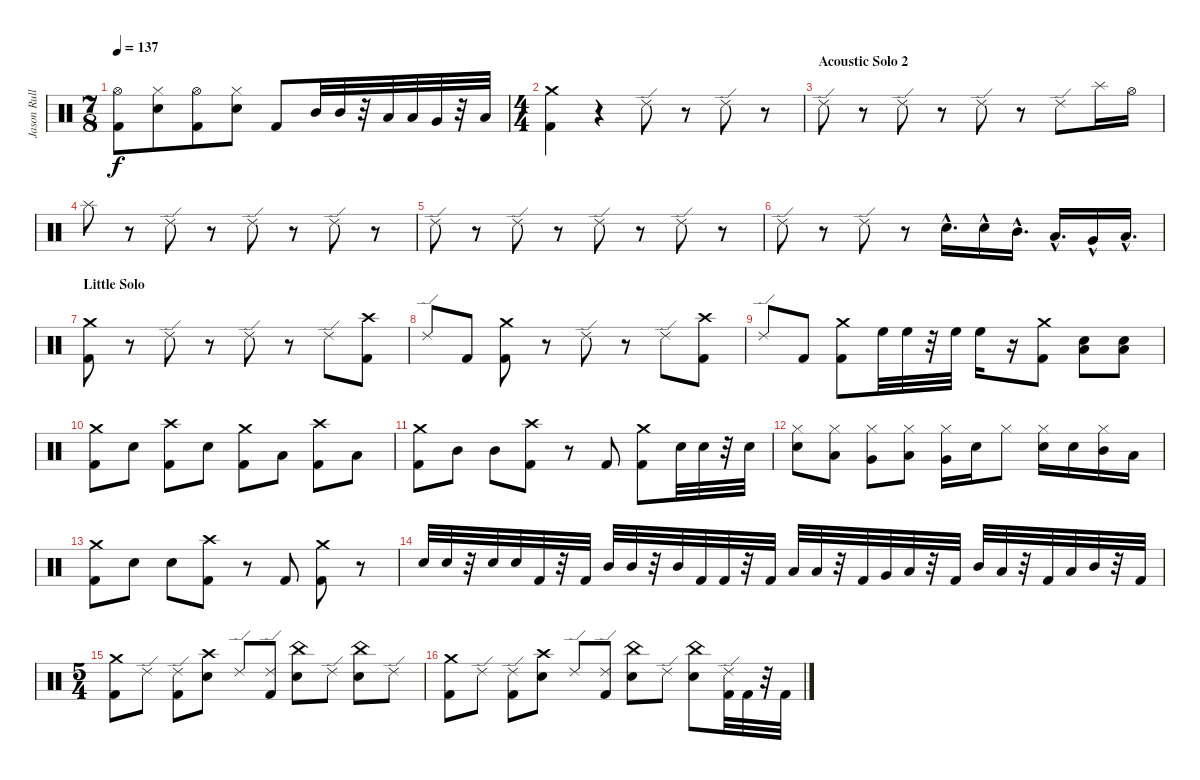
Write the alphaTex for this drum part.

\track ("Jason Rullo" "Jason Rull") {instrument percussion}
\staff {score}
\articulation defaults
\ts (7 8)
\tempo 137
\clef neutral
\ks c
("Hi-Hat (open)" "Kick (hit) 2").8{dy f} ("Hi-Hat (closed)" "Electric Snare (hit)").8 ("Hi-Hat (open)" "Kick (hit) 2").8 ("Hi-Hat (closed)" "Electric Snare (hit)").8 "Kick (hit) 2".8 "Mid Tom (hit)".32 "Mid Tom (hit)".32 r.32 "Low Tom (hit)".32 "Low Tom (hit)".32 "Very Low Tom (hit)".32 r.32 "Low Floor Tom (hit)".32 |
\ts (4 4)
("Crash medium (hit)" "Kick (hit) 2").4 r.4 "Ride (edge) 2".8 r.8 "Ride (edge) 2".8 r.8 |
\section ("" "Acoustic Solo 2")
"Ride (edge) 2".8 r.8 "Ride (edge) 2".8 r.8 "Ride (edge) 2".8 r.8 "Ride (edge) 2".8 "Splash (hit)".16 "Hi-Hat (open)".16 |
"Splash (hit)".8 r.8 "Ride (edge) 2".8 r.8 "Ride (edge) 2".8 r.8 "Ride (edge) 2".8 r.8 |
"Ride (edge) 2".8 r.8 "Ride (edge) 2".8 r.8 "Ride (edge) 2".8 r.8 "Ride (edge) 2".8 r.8 |
"Ride (edge) 2".8 r.8 "Ride (edge) 2".8 r.8 "Electric Snare (hit)"{hac}.16{d} "Electric Snare (hit)"{hac}.16 "Mid Tom (hit)"{hac}.16{d} "Low Tom (hit)"{hac}.16{d} "Very Low Tom (hit)"{hac}.16 "Low Floor Tom (hit)"{hac}.16{d} |
\section ("" "Little Solo")
("Crash medium (hit)" "Kick (hit) 2").8 r.8 "Ride (edge) 2".8 r.8 "Ride (edge) 2".8 r.8 "Ride (edge) 2".8 ("Crash high (hit)" "Kick (hit) 2").8 |
"Ride (edge) 2".8 "Kick (hit) 2".8 ("Crash medium (hit)" "Kick (hit) 2").8 r.8 "Ride (edge) 2".8 r.8 "Ride (edge) 2".8 ("Crash high (hit)" "Kick (hit) 2").8 |
"Ride (edge) 2".8 "Kick (hit) 2".8 ("Crash medium (hit)" "Kick (hit) 2").8 "High Floor Tom (hit)".32 "High Floor Tom (hit)".32 r.32 "High Floor Tom (hit)".32 "High Floor Tom (hit)".16 r.16 ("Crash medium (hit)" "Kick (hit) 2").8 ("Low Tom (hit)" "Electric Snare (hit)").8 ("Low Tom (hit)" "Electric Snare (hit)").8 |
("Crash medium (hit)" "Kick (hit) 2").8 "Electric Snare (hit)".8 ("Crash high (hit)" "Kick (hit) 2").8 "Electric Snare (hit)".8 ("Crash medium (hit)" "Kick (hit) 2").8 "Low Tom (hit)".8 ("Crash high (hit)" "Kick (hit) 2").8 "Low Tom (hit)".8 |
("Crash medium (hit)" "Kick (hit) 2").8 "Mid Tom (hit)".8 "Mid Tom (hit)".8 ("Crash high (hit)" "Kick (hit) 2").8 r.8 "Kick (hit) 2".8 ("Crash medium (hit)" "Kick (hit) 2").8 "Electric Snare (hit)".32 "Electric Snare (hit)".32 r.32 "Electric Snare (hit)".32 |
("Hi-Hat (closed)" "Electric Snare (hit)").8 ("Hi-Hat (closed)" "Low Tom (hit)").8 ("Hi-Hat (closed)" "Very Low Tom (hit)").8 ("Hi-Hat (closed)" "Low Floor Tom (hit)").8 ("Hi-Hat (closed)" "Very Low Tom (hit)").16 "Electric Snare (hit)".16 "Hi-Hat (closed)".8 ("Electric Snare (hit)" "Hi-Hat (closed)").16 "Electric Snare (hit)".16 ("Mid Tom (hit)" "Hi-Hat (closed)").16 "Low Tom (hit)".16 |
("Crash medium (hit)" "Kick (hit) 2").8 "Electric Snare (hit)".8 "Electric Snare (hit)".8 ("Crash high (hit)" "Kick (hit) 2").8 r.8 "Kick (hit) 2".8 ("Crash medium (hit)" "Kick (hit) 2").8 r.8 |
"Electric Snare (hit)".32 "Electric Snare (hit)".32 r.32 "Electric Snare (hit)".32 "Electric Snare (hit)".32 "Kick (hit) 2".32 r.32 "Kick (hit) 2".32 "Mid Tom (hit)".32 "Mid Tom (hit)".32 r.32 "Mid Tom (hit)".32 "Kick (hit) 2".32 "Kick (hit) 2".32 r.32 "Kick (hit) 2".32 "Low Tom (hit)".32 "Low Floor Tom (hit)".32 r.32 "Kick (hit) 2".32 "Very Low Tom (hit)".32 "Low Floor Tom (hit)".32 r.32 "Kick (hit) 2".32 "Mid Tom (hit)".32 "Low Floor Tom (hit)".32 r.32 "Kick (hit) 2".32 "Low Tom (hit)".32 "Mid Tom (hit)".32 r.32 "Kick (hit) 2".32 |
\ts (5 4)
("Crash medium (hit)" "Kick (hit) 2").8 "Ride (edge) 2".8 ("Ride (edge) 2" "Kick (hit) 2").8 ("Crash high (hit)" "Electric Snare (hit)").8 "Ride (edge) 2".8 ("Ride (edge) 2" "Kick (hit) 2").8 ("China (hit)" "Electric Snare (hit)").8 "Ride (edge) 2".8 ("China (hit)" "Electric Snare (hit)").8 "Ride (edge) 2".8 |
("Crash medium (hit)" "Kick (hit) 2").8 "Ride (edge) 2".8 ("Ride (edge) 2" "Kick (hit) 2").8 ("Crash high (hit)" "Electric Snare (hit)").8 "Ride (edge) 2".8 ("Ride (edge) 2" "Kick (hit) 2").8 ("China (hit)" "Electric Snare (hit)").8 "Ride (edge) 2".8 ("China (hit)" "Electric Snare (hit)").8 ("Kick (hit) 2" "Ride (edge) 2").32 "Kick (hit) 2".32 r.32 "Kick (hit) 2".32
